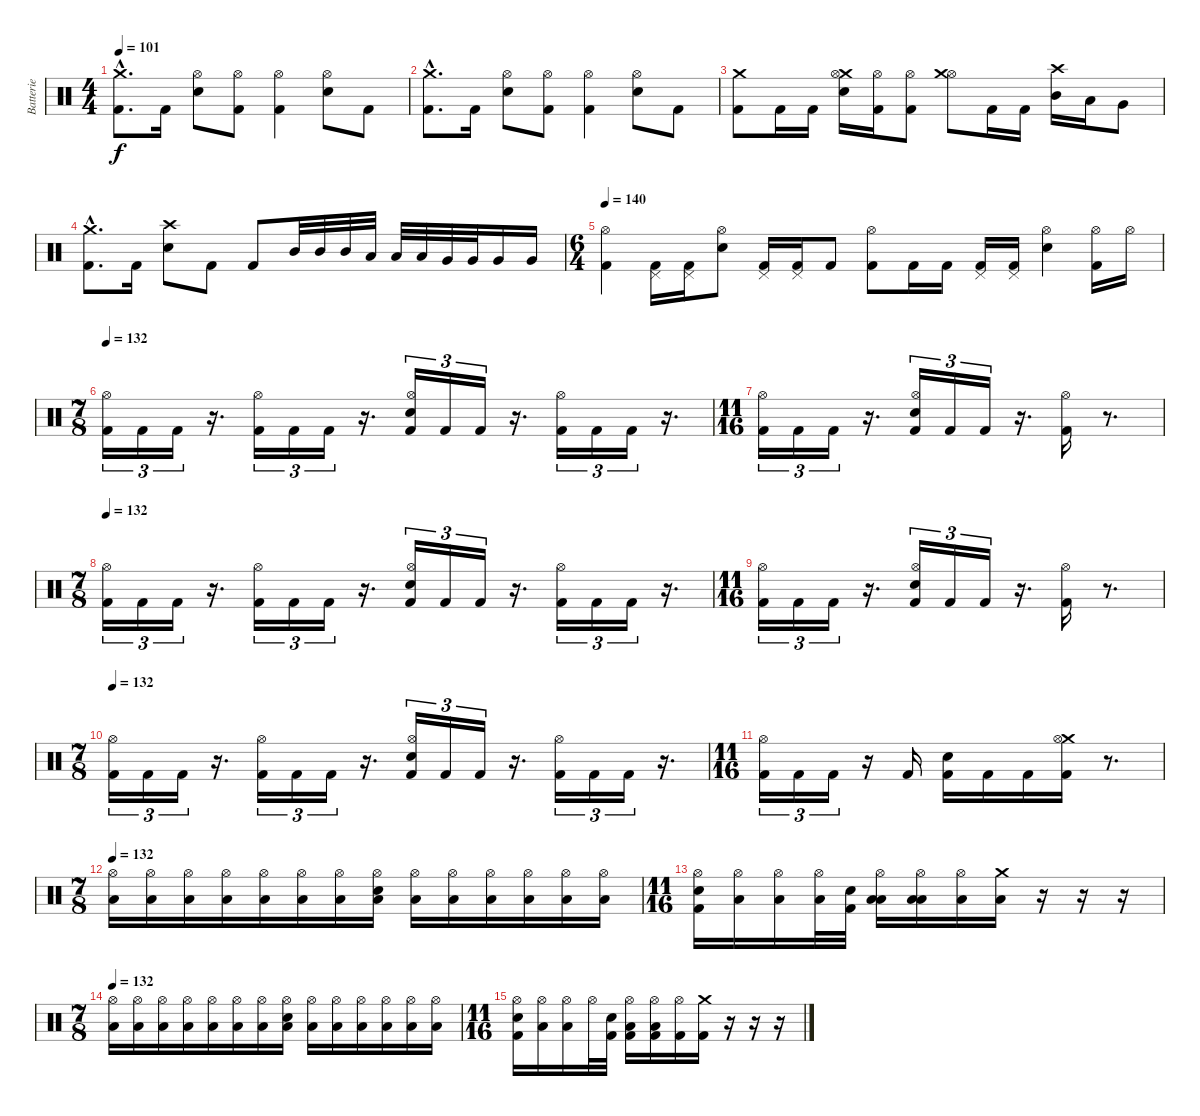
\track ("Batterie" "Batterie") {instrument percussion}
\staff {score}
\articulation defaults
\ts (4 4)
\tempo 101
\clef neutral
\ks c
("Crash medium (hit)"{hac} "Kick (hit) 2"{hac}).8{d dy f} "Kick (hit) 2".16 ("Hi-Hat (open)" "Electric Snare (hit)").8 ("Hi-Hat (open)" "Kick (hit) 2").8 ("Hi-Hat (open)" "Kick (hit) 2").4 ("Hi-Hat (open)" "Electric Snare (hit)").8 "Kick (hit) 2".8 |
("Crash medium (hit)"{hac} "Kick (hit) 2"{hac}).8{d} "Kick (hit) 2".16 ("Hi-Hat (open)" "Electric Snare (hit)").8 ("Hi-Hat (open)" "Kick (hit) 2").8 ("Hi-Hat (open)" "Kick (hit) 2").4 ("Hi-Hat (open)" "Electric Snare (hit)").8 "Kick (hit) 2".8 |
("Crash medium (hit)" "Kick (hit) 2").8 "Kick (hit) 2".16 "Kick (hit) 2".16 ("Crash medium (hit)" "Hi-Hat (open)" "Electric Snare (hit)").16 ("Hi-Hat (open)" "Kick (hit) 2").16 ("Hi-Hat (open)" "Kick (hit) 2").8 ("Hi-Hat (open)" "Crash medium (hit)").8 "Kick (hit) 2".16 "Kick (hit) 2".16 ("Crash high (hit)" "Mid Tom (hit)").16 "Low Tom (hit)".16 "Very Low Tom (hit)".8 |
("Crash medium (hit)"{hac} "Kick (hit) 2"{hac}).8{d} "Kick (hit) 2".16 ("Crash high (hit)" "Electric Snare (hit)").8 "Kick (hit) 2".8 "Kick (hit) 2".8 "Mid Tom (hit)".32 "Mid Tom (hit)".32 "Mid Tom (hit)".32 "Low Tom (hit)".32 "Low Tom (hit)".32 "Low Tom (hit)".32 "Very Low Tom (hit)".32 "Very Low Tom (hit)".32 "Very Low Tom (hit)".16 "Very Low Tom (hit)".16 |
\ts (6 4)
\tempo 140
("Hi-Hat (open)" "Kick (hit) 2").4 ("Pedal Hi-Hat (hit)" "Kick (hit) 2").16 ("Pedal Hi-Hat (hit)" "Kick (hit) 2").16 ("Hi-Hat (open)" "Electric Snare (hit)").8 ("Pedal Hi-Hat (hit)" "Kick (hit) 2").16 ("Pedal Hi-Hat (hit)" "Kick (hit) 2").16 "Kick (hit) 2".8 ("Hi-Hat (open)" "Kick (hit) 2").8 "Kick (hit) 2".16 "Kick (hit) 2".16 ("Pedal Hi-Hat (hit)" "Kick (hit) 2").16 ("Pedal Hi-Hat (hit)" "Kick (hit) 2").16 ("Hi-Hat (open)" "Electric Snare (hit)").4 ("Hi-Hat (open)" "Kick (hit) 2").16 "Hi-Hat (open)".16 |
\ts (7 8)
\tempo 132
("Hi-Hat (open)" "Kick (hit) 2").16{tu (3 2)} "Kick (hit) 2".16{tu (3 2)} "Kick (hit) 2".16{tu (3 2)} r.16{d} ("Hi-Hat (open)" "Kick (hit) 2").16{tu (3 2)} "Kick (hit) 2".16{tu (3 2)} "Kick (hit) 2".16{tu (3 2)} r.16{d} ("Hi-Hat (open)" "Electric Snare (hit)" "Kick (hit) 2").16{tu (3 2)} "Kick (hit) 2".16{tu (3 2)} "Kick (hit) 2".16{tu (3 2)} r.16{d} ("Hi-Hat (open)" "Kick (hit) 2").16{tu (3 2)} "Kick (hit) 2".16{tu (3 2)} "Kick (hit) 2".16{tu (3 2)} r.16{d} |
\ts (11 16)
("Hi-Hat (open)" "Kick (hit) 2").16{tu (3 2)} "Kick (hit) 2".16{tu (3 2)} "Kick (hit) 2".16{tu (3 2)} r.16{d} ("Electric Snare (hit)" "Hi-Hat (open)" "Kick (hit) 2").16{tu (3 2)} "Kick (hit) 2".16{tu (3 2)} "Kick (hit) 2".16{tu (3 2)} r.16{d} ("Hi-Hat (open)" "Kick (hit) 2").16 r.8{d} |
\ts (7 8)
\tempo 132
("Hi-Hat (open)" "Kick (hit) 2").16{tu (3 2)} "Kick (hit) 2".16{tu (3 2)} "Kick (hit) 2".16{tu (3 2)} r.16{d} ("Hi-Hat (open)" "Kick (hit) 2").16{tu (3 2)} "Kick (hit) 2".16{tu (3 2)} "Kick (hit) 2".16{tu (3 2)} r.16{d} ("Hi-Hat (open)" "Electric Snare (hit)" "Kick (hit) 2").16{tu (3 2)} "Kick (hit) 2".16{tu (3 2)} "Kick (hit) 2".16{tu (3 2)} r.16{d} ("Hi-Hat (open)" "Kick (hit) 2").16{tu (3 2)} "Kick (hit) 2".16{tu (3 2)} "Kick (hit) 2".16{tu (3 2)} r.16{d} |
\ts (11 16)
("Hi-Hat (open)" "Kick (hit) 2").16{tu (3 2)} "Kick (hit) 2".16{tu (3 2)} "Kick (hit) 2".16{tu (3 2)} r.16{d} ("Electric Snare (hit)" "Hi-Hat (open)" "Kick (hit) 2").16{tu (3 2)} "Kick (hit) 2".16{tu (3 2)} "Kick (hit) 2".16{tu (3 2)} r.16{d} ("Hi-Hat (open)" "Kick (hit) 2").16 r.8{d} |
\ts (7 8)
\tempo 132
("Hi-Hat (open)" "Kick (hit) 2").16{tu (3 2)} "Kick (hit) 2".16{tu (3 2)} "Kick (hit) 2".16{tu (3 2)} r.16{d} ("Hi-Hat (open)" "Kick (hit) 2").16{tu (3 2)} "Kick (hit) 2".16{tu (3 2)} "Kick (hit) 2".16{tu (3 2)} r.16{d} ("Hi-Hat (open)" "Electric Snare (hit)" "Kick (hit) 2").16{tu (3 2)} "Kick (hit) 2".16{tu (3 2)} "Kick (hit) 2".16{tu (3 2)} r.16{d} ("Hi-Hat (open)" "Kick (hit) 2").16{tu (3 2)} "Kick (hit) 2".16{tu (3 2)} "Kick (hit) 2".16{tu (3 2)} r.16{d} |
\ts (11 16)
("Hi-Hat (open)" "Kick (hit) 2").16{tu (3 2)} "Kick (hit) 2".16{tu (3 2)} "Kick (hit) 2".16{tu (3 2)} r.16 "Kick (hit) 2".16 ("Electric Snare (hit)" "Kick (hit) 2").16 "Kick (hit) 2".16 "Kick (hit) 2".16 ("Crash medium (hit)" "Hi-Hat (open)" "Kick (hit) 2").16 r.8{d} |
\ts (7 8)
\tempo 132
("Hi-Hat (open)" "Low Floor Tom (hit)").16 ("Hi-Hat (open)" "Low Floor Tom (hit)").16 ("Hi-Hat (open)" "Low Floor Tom (hit)").16 ("Hi-Hat (open)" "Low Floor Tom (hit)").16 ("Hi-Hat (open)" "Low Floor Tom (hit)").16 ("Hi-Hat (open)" "Low Floor Tom (hit)").16 ("Hi-Hat (open)" "Low Floor Tom (hit)").16 ("Hi-Hat (open)" "Electric Snare (hit)" "Low Floor Tom (hit)").16 ("Hi-Hat (open)" "Low Floor Tom (hit)").16 ("Hi-Hat (open)" "Low Floor Tom (hit)").16 ("Hi-Hat (open)" "Low Floor Tom (hit)").16 ("Hi-Hat (open)" "Low Floor Tom (hit)").16 ("Hi-Hat (open)" "Low Floor Tom (hit)").16 ("Hi-Hat (open)" "Low Floor Tom (hit)").16 |
\ts (11 16)
("Hi-Hat (open)" "Electric Snare (hit)" "Kick (hit) 2").16 ("Hi-Hat (open)" "Low Floor Tom (hit)").16 ("Hi-Hat (open)" "Low Floor Tom (hit)").16 ("Hi-Hat (open)" "Low Floor Tom (hit)").32 ("Kick (hit) 2" "Electric Snare (hit)").32 ("Hi-Hat (open)" "Low Tom (hit)" "Low Floor Tom (hit)").16 ("Hi-Hat (open)" "Low Tom (hit)" "Low Floor Tom (hit)").16 ("Hi-Hat (open)" "Low Floor Tom (hit)").16 ("Crash medium (hit)" "Low Floor Tom (hit)").16 r.16 r.16 r.16 |
\ts (7 8)
\tempo 132
("Hi-Hat (open)" "Low Floor Tom (hit)").16 ("Hi-Hat (open)" "Low Floor Tom (hit)").16 ("Hi-Hat (open)" "Low Floor Tom (hit)").16 ("Hi-Hat (open)" "Low Floor Tom (hit)").16 ("Hi-Hat (open)" "Low Floor Tom (hit)").16 ("Hi-Hat (open)" "Low Floor Tom (hit)").16 ("Hi-Hat (open)" "Low Floor Tom (hit)").16 ("Hi-Hat (open)" "Electric Snare (hit)" "Low Floor Tom (hit)").16 ("Hi-Hat (open)" "Low Floor Tom (hit)").16 ("Hi-Hat (open)" "Low Floor Tom (hit)").16 ("Hi-Hat (open)" "Low Floor Tom (hit)").16 ("Hi-Hat (open)" "Low Floor Tom (hit)").16 ("Hi-Hat (open)" "Low Floor Tom (hit)").16 ("Hi-Hat (open)" "Low Floor Tom (hit)").16 |
\ts (11 16)
("Hi-Hat (open)" "Electric Snare (hit)" "Kick (hit) 2").16 ("Hi-Hat (open)" "Low Floor Tom (hit)").16 ("Hi-Hat (open)" "Low Floor Tom (hit)").16 "Hi-Hat (open)".32 ("Kick (hit) 2" "Electric Snare (hit)").32 ("Hi-Hat (open)" "Low Tom (hit)" "Kick (hit) 2").16 ("Hi-Hat (open)" "Low Tom (hit)" "Kick (hit) 2").16 ("Hi-Hat (open)" "Kick (hit) 2").16 ("Crash medium (hit)" "Kick (hit) 2").16 r.16 r.16 r.16
